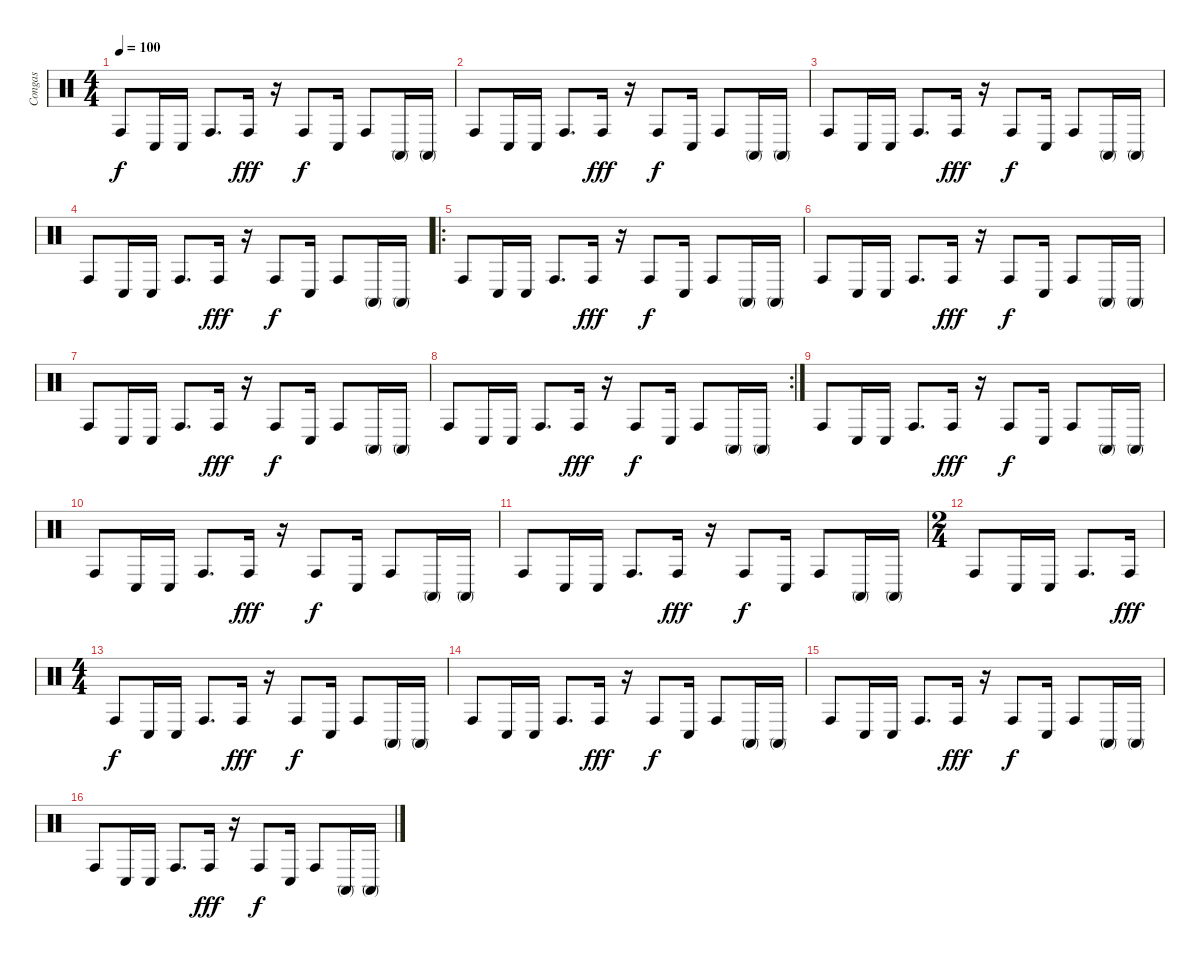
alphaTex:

\track ("Congas" "Congas") {instrument percussion}
\staff {score}
\articulation defaults
\ts (4 4)
\tempo 100
\clef neutral
\ks c "Conga high (hit)".8{dy f} "Conga low (hit)".16 "Conga low (hit)".16 "Conga high (hit)".8{d} "Conga high (hit)".16{dy fff}
r.16 "Conga high (hit)".8{dy f} "Conga low (hit)".16 "Conga high (hit)".8 "Conga high (mute)".16 "Conga high (mute)".16 |
"Conga high (hit)".8 "Conga low (hit)".16 "Conga low (hit)".16 "Conga high (hit)".8{d} "Conga high (hit)".16{dy fff} r.16 "Conga high (hit)".8{dy f} "Conga low (hit)".16 "Conga high (hit)".8 "Conga high (mute)".16 "Conga high (mute)".16 |
"Conga high (hit)".8 "Conga low (hit)".16 "Conga low (hit)".16 "Conga high (hit)".8{d} "Conga high (hit)".16{dy fff} r.16 "Conga high (hit)".8{dy f} "Conga low (hit)".16 "Conga high (hit)".8 "Conga high (mute)".16 "Conga high (mute)".16 |
"Conga high (hit)".8 "Conga low (hit)".16 "Conga low (hit)".16 "Conga high (hit)".8{d} "Conga high (hit)".16{dy fff} r.16 "Conga high (hit)".8{dy f} "Conga low (hit)".16 "Conga high (hit)".8 "Conga high (mute)".16 "Conga high (mute)".16 |
\ro "Conga high (hit)".8 "Conga low (hit)".16 "Conga low (hit)".16 "Conga high (hit)".8{d} "Conga high (hit)".16{dy fff}
r.16 "Conga high (hit)".8{dy f} "Conga low (hit)".16 "Conga high (hit)".8 "Conga high (mute)".16 "Conga high (mute)".16 |
"Conga high (hit)".8 "Conga low (hit)".16 "Conga low (hit)".16 "Conga high (hit)".8{d} "Conga high (hit)".16{dy fff} r.16 "Conga high (hit)".8{dy f} "Conga low (hit)".16 "Conga high (hit)".8 "Conga high (mute)".16 "Conga high (mute)".16 |
"Conga high (hit)".8 "Conga low (hit)".16 "Conga low (hit)".16 "Conga high (hit)".8{d} "Conga high (hit)".16{dy fff} r.16 "Conga high (hit)".8{dy f} "Conga low (hit)".16 "Conga high (hit)".8 "Conga high (mute)".16 "Conga high (mute)".16 |
\rc 2 "Conga high (hit)".8 "Conga low (hit)".16 "Conga low (hit)".16 "Conga high (hit)".8{d} "Conga high (hit)".16{dy fff}
r.16 "Conga high (hit)".8{dy f} "Conga low (hit)".16 "Conga high (hit)".8 "Conga high (mute)".16 "Conga high (mute)".16 |
"Conga high (hit)".8 "Conga low (hit)".16 "Conga low (hit)".16 "Conga high (hit)".8{d} "Conga high (hit)".16{dy fff} r.16 "Conga high (hit)".8{dy f} "Conga low (hit)".16 "Conga high (hit)".8 "Conga high (mute)".16 "Conga high (mute)".16 |
"Conga high (hit)".8 "Conga low (hit)".16 "Conga low (hit)".16 "Conga high (hit)".8{d} "Conga high (hit)".16{dy fff} r.16 "Conga high (hit)".8{dy f} "Conga low (hit)".16 "Conga high (hit)".8 "Conga high (mute)".16 "Conga high (mute)".16 |
"Conga high (hit)".8 "Conga low (hit)".16 "Conga low (hit)".16 "Conga high (hit)".8{d} "Conga high (hit)".16{dy fff} r.16 "Conga high (hit)".8{dy f} "Conga low (hit)".16 "Conga high (hit)".8 "Conga high (mute)".16 "Conga high (mute)".16 |
\ts (2 4)
"Conga high (hit)".8 "Conga low (hit)".16 "Conga low (hit)".16 "Conga high (hit)".8{d} "Conga high (hit)".16{dy fff} |
\ts (4 4)
"Conga high (hit)".8{dy f} "Conga low (hit)".16 "Conga low (hit)".16 "Conga high (hit)".8{d} "Conga high (hit)".16{dy fff} r.16 "Conga high (hit)".8{dy f} "Conga low (hit)".16 "Conga high (hit)".8 "Conga high (mute)".16 "Conga high (mute)".16 |
"Conga high (hit)".8 "Conga low (hit)".16 "Conga low (hit)".16 "Conga high (hit)".8{d} "Conga high (hit)".16{dy fff} r.16 "Conga high (hit)".8{dy f} "Conga low (hit)".16 "Conga high (hit)".8 "Conga high (mute)".16 "Conga high (mute)".16 |
"Conga high (hit)".8 "Conga low (hit)".16 "Conga low (hit)".16 "Conga high (hit)".8{d} "Conga high (hit)".16{dy fff} r.16 "Conga high (hit)".8{dy f} "Conga low (hit)".16 "Conga high (hit)".8 "Conga high (mute)".16 "Conga high (mute)".16 |
"Conga high (hit)".8 "Conga low (hit)".16 "Conga low (hit)".16 "Conga high (hit)".8{d} "Conga high (hit)".16{dy fff} r.16 "Conga high (hit)".8{dy f} "Conga low (hit)".16 "Conga high (hit)".8 "Conga high (mute)".16 "Conga high (mute)".16
